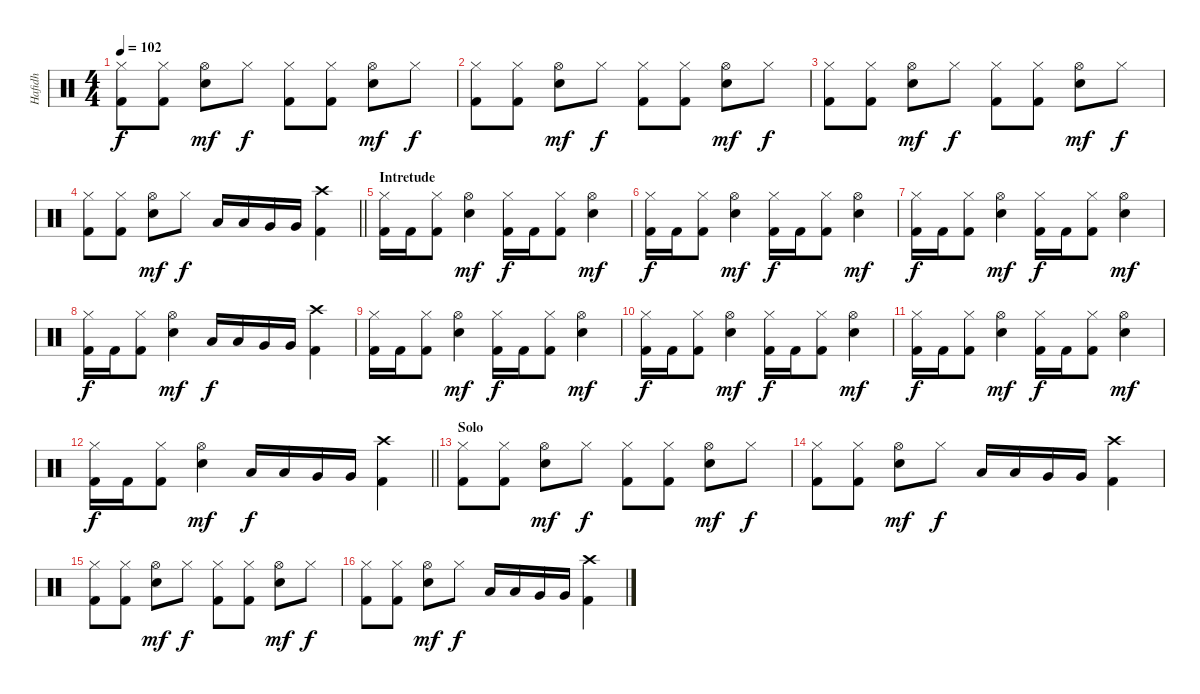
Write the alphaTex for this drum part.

\track ("Hafidh" "Hafidh") {instrument percussion}
\staff {score}
\articulation defaults
\ts (4 4)
\tempo 102
\clef neutral
\ks c
("Hi-Hat (closed)" "Kick (hit) 2").8{dy f} ("Hi-Hat (closed)" "Kick (hit) 2").8 ("Hi-Hat (open)" "Electric Snare (hit)").8{dy mf} "Hi-Hat (closed)".8{dy f} ("Hi-Hat (closed)" "Kick (hit) 2").8 ("Hi-Hat (closed)" "Kick (hit) 2").8 ("Hi-Hat (open)" "Electric Snare (hit)").8{dy mf} "Hi-Hat (closed)".8{dy f} |
("Hi-Hat (closed)" "Kick (hit) 2").8 ("Hi-Hat (closed)" "Kick (hit) 2").8 ("Hi-Hat (open)" "Electric Snare (hit)").8{dy mf} "Hi-Hat (closed)".8{dy f} ("Hi-Hat (closed)" "Kick (hit) 2").8 ("Hi-Hat (closed)" "Kick (hit) 2").8 ("Hi-Hat (open)" "Electric Snare (hit)").8{dy mf} "Hi-Hat (closed)".8{dy f} |
("Hi-Hat (closed)" "Kick (hit) 2").8 ("Hi-Hat (closed)" "Kick (hit) 2").8 ("Hi-Hat (open)" "Electric Snare (hit)").8{dy mf} "Hi-Hat (closed)".8{dy f} ("Hi-Hat (closed)" "Kick (hit) 2").8 ("Hi-Hat (closed)" "Kick (hit) 2").8 ("Hi-Hat (open)" "Electric Snare (hit)").8{dy mf} "Hi-Hat (closed)".8{dy f} |
\barLineRight lightlight
("Hi-Hat (closed)" "Kick (hit) 2").8 ("Hi-Hat (closed)" "Kick (hit) 2").8 ("Hi-Hat (open)" "Electric Snare (hit)").8{dy mf} "Hi-Hat (closed)".8{dy f} "Low Tom (hit)".16 "Low Tom (hit)".16 "Very Low Tom (hit)".16 "Very Low Tom (hit)".16 ("Crash high (hit)" "Kick (hit) 2").4 |
\section ("" "Intretude")
("Hi-Hat (closed)" "Kick (hit) 2").16 "Kick (hit) 2".16 ("Hi-Hat (closed)" "Kick (hit) 2").8 ("Hi-Hat (open)" "Electric Snare (hit)").4{dy mf} ("Hi-Hat (closed)" "Kick (hit) 2").16{dy f} "Kick (hit) 2".16 ("Hi-Hat (closed)" "Kick (hit) 2").8 ("Hi-Hat (open)" "Electric Snare (hit)").4{dy mf} |
("Hi-Hat (closed)" "Kick (hit) 2").16{dy f} "Kick (hit) 2".16 ("Hi-Hat (closed)" "Kick (hit) 2").8 ("Hi-Hat (open)" "Electric Snare (hit)").4{dy mf} ("Hi-Hat (closed)" "Kick (hit) 2").16{dy f} "Kick (hit) 2".16 ("Hi-Hat (closed)" "Kick (hit) 2").8 ("Hi-Hat (open)" "Electric Snare (hit)").4{dy mf} |
("Hi-Hat (closed)" "Kick (hit) 2").16{dy f} "Kick (hit) 2".16 ("Hi-Hat (closed)" "Kick (hit) 2").8 ("Hi-Hat (open)" "Electric Snare (hit)").4{dy mf} ("Hi-Hat (closed)" "Kick (hit) 2").16{dy f} "Kick (hit) 2".16 ("Hi-Hat (closed)" "Kick (hit) 2").8 ("Hi-Hat (open)" "Electric Snare (hit)").4{dy mf} |
("Hi-Hat (closed)" "Kick (hit) 2").16{dy f} "Kick (hit) 2".16 ("Hi-Hat (closed)" "Kick (hit) 2").8 ("Hi-Hat (open)" "Electric Snare (hit)").4{dy mf} "Low Tom (hit)".16{dy f} "Low Tom (hit)".16 "Very Low Tom (hit)".16 "Very Low Tom (hit)".16 ("Crash high (hit)" "Kick (hit) 2").4 |
("Hi-Hat (closed)" "Kick (hit) 2").16 "Kick (hit) 2".16 ("Hi-Hat (closed)" "Kick (hit) 2").8 ("Hi-Hat (open)" "Electric Snare (hit)").4{dy mf} ("Hi-Hat (closed)" "Kick (hit) 2").16{dy f} "Kick (hit) 2".16 ("Hi-Hat (closed)" "Kick (hit) 2").8 ("Hi-Hat (open)" "Electric Snare (hit)").4{dy mf} |
("Hi-Hat (closed)" "Kick (hit) 2").16{dy f} "Kick (hit) 2".16 ("Hi-Hat (closed)" "Kick (hit) 2").8 ("Hi-Hat (open)" "Electric Snare (hit)").4{dy mf} ("Hi-Hat (closed)" "Kick (hit) 2").16{dy f} "Kick (hit) 2".16 ("Hi-Hat (closed)" "Kick (hit) 2").8 ("Hi-Hat (open)" "Electric Snare (hit)").4{dy mf} |
("Hi-Hat (closed)" "Kick (hit) 2").16{dy f} "Kick (hit) 2".16 ("Hi-Hat (closed)" "Kick (hit) 2").8 ("Hi-Hat (open)" "Electric Snare (hit)").4{dy mf} ("Hi-Hat (closed)" "Kick (hit) 2").16{dy f} "Kick (hit) 2".16 ("Hi-Hat (closed)" "Kick (hit) 2").8 ("Hi-Hat (open)" "Electric Snare (hit)").4{dy mf} |
\barLineRight lightlight
("Hi-Hat (closed)" "Kick (hit) 2").16{dy f} "Kick (hit) 2".16 ("Hi-Hat (closed)" "Kick (hit) 2").8 ("Hi-Hat (open)" "Electric Snare (hit)").4{dy mf} "Low Tom (hit)".16{dy f} "Low Tom (hit)".16 "Very Low Tom (hit)".16 "Very Low Tom (hit)".16 ("Crash high (hit)" "Kick (hit) 2").4 |
\section ("" "Solo")
("Hi-Hat (closed)" "Kick (hit) 2").8 ("Hi-Hat (closed)" "Kick (hit) 2").8 ("Hi-Hat (open)" "Electric Snare (hit)").8{dy mf} "Hi-Hat (closed)".8{dy f} ("Hi-Hat (closed)" "Kick (hit) 2").8 ("Hi-Hat (closed)" "Kick (hit) 2").8 ("Hi-Hat (open)" "Electric Snare (hit)").8{dy mf} "Hi-Hat (closed)".8{dy f} |
("Hi-Hat (closed)" "Kick (hit) 2").8 ("Hi-Hat (closed)" "Kick (hit) 2").8 ("Hi-Hat (open)" "Electric Snare (hit)").8{dy mf} "Hi-Hat (closed)".8{dy f} "Low Tom (hit)".16 "Low Tom (hit)".16 "Very Low Tom (hit)".16 "Very Low Tom (hit)".16 ("Crash high (hit)" "Kick (hit) 2").4 |
("Hi-Hat (closed)" "Kick (hit) 2").8 ("Hi-Hat (closed)" "Kick (hit) 2").8 ("Hi-Hat (open)" "Electric Snare (hit)").8{dy mf} "Hi-Hat (closed)".8{dy f} ("Hi-Hat (closed)" "Kick (hit) 2").8 ("Hi-Hat (closed)" "Kick (hit) 2").8 ("Hi-Hat (open)" "Electric Snare (hit)").8{dy mf} "Hi-Hat (closed)".8{dy f} |
("Hi-Hat (closed)" "Kick (hit) 2").8 ("Hi-Hat (closed)" "Kick (hit) 2").8 ("Hi-Hat (open)" "Electric Snare (hit)").8{dy mf} "Hi-Hat (closed)".8{dy f} "Low Tom (hit)".16 "Low Tom (hit)".16 "Very Low Tom (hit)".16 "Very Low Tom (hit)".16 ("Crash high (hit)" "Kick (hit) 2").4
